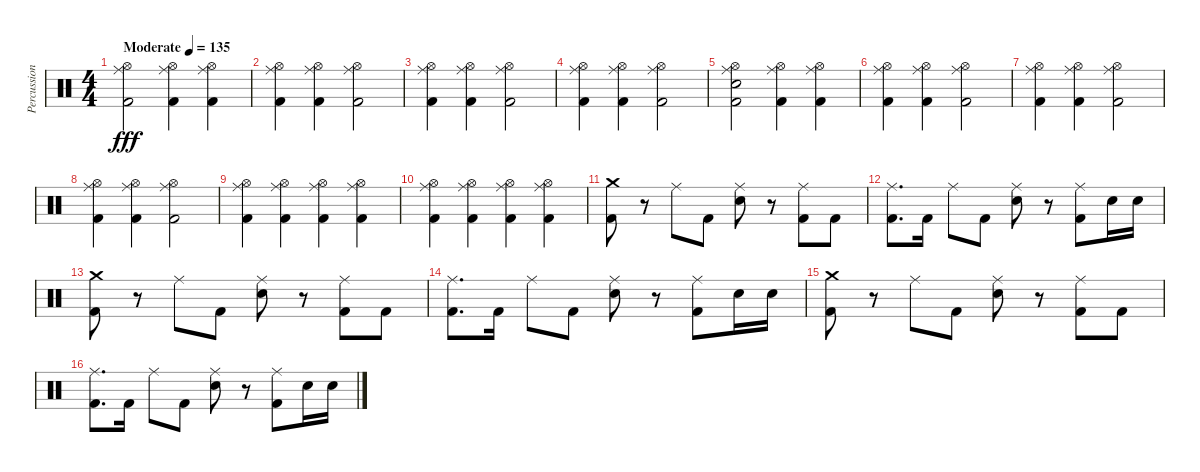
\track ("Percussion" "Percussion") {instrument percussion}
\staff {score}
\articulation defaults
\ts (4 4)
\tempo (135 "Moderate")
\clef neutral
\ks c
("Hi-Hat (open)" "Kick (hit) 2" "Ride (middle)").2{dy fff} ("Hi-Hat (open)" "Kick (hit) 2" "Ride (middle)").4 ("Hi-Hat (open)" "Kick (hit) 2" "Ride (middle)").4 |
("Hi-Hat (open)" "Kick (hit) 2" "Ride (middle)").4 ("Hi-Hat (open)" "Kick (hit) 2" "Ride (middle)").4 ("Hi-Hat (open)" "Kick (hit) 2" "Ride (middle)").2 |
("Hi-Hat (open)" "Kick (hit) 2" "Ride (middle)").4 ("Hi-Hat (open)" "Kick (hit) 2" "Ride (middle)").4 ("Hi-Hat (open)" "Kick (hit) 2" "Ride (middle)").2 |
("Hi-Hat (open)" "Kick (hit) 2" "Ride (middle)").4 ("Hi-Hat (open)" "Kick (hit) 2" "Ride (middle)").4 ("Hi-Hat (open)" "Kick (hit) 2" "Ride (middle)").2 |
("Hi-Hat (open)" "Kick (hit) 2" "Ride (middle)" "Electric Snare (hit)").2 ("Hi-Hat (open)" "Kick (hit) 2" "Ride (middle)").4 ("Hi-Hat (open)" "Kick (hit) 2" "Ride (middle)").4 |
("Hi-Hat (open)" "Kick (hit) 2" "Ride (middle)").4 ("Hi-Hat (open)" "Kick (hit) 2" "Ride (middle)").4 ("Hi-Hat (open)" "Kick (hit) 2" "Ride (middle)").2 |
("Hi-Hat (open)" "Kick (hit) 2" "Ride (middle)").4 ("Hi-Hat (open)" "Kick (hit) 2" "Ride (middle)").4 ("Hi-Hat (open)" "Kick (hit) 2" "Ride (middle)").2 |
("Hi-Hat (open)" "Kick (hit) 2" "Ride (middle)").4 ("Hi-Hat (open)" "Kick (hit) 2" "Ride (middle)").4 ("Hi-Hat (open)" "Kick (hit) 2" "Ride (middle)").2 |
("Hi-Hat (open)" "Kick (hit) 2" "Ride (middle)").4 ("Hi-Hat (open)" "Kick (hit) 2" "Ride (middle)").4 ("Hi-Hat (open)" "Kick (hit) 2" "Ride (middle)").4 ("Hi-Hat (open)" "Kick (hit) 2" "Ride (middle)").4 |
("Hi-Hat (open)" "Kick (hit) 2" "Ride (middle)").4 ("Hi-Hat (open)" "Kick (hit) 2" "Ride (middle)").4 ("Hi-Hat (open)" "Kick (hit) 2" "Ride (middle)").4 ("Hi-Hat (open)" "Kick (hit) 2" "Ride (middle)").4 |
("Crash medium (hit)" "Kick (hit) 2").8 r.8 "Ride (middle)".8 "Kick (hit) 2".8 ("Ride (middle)" "Electric Snare (hit)").8 r.8 ("Ride (middle)" "Kick (hit) 2").8 "Kick (hit) 2".8 |
("Ride (middle)" "Kick (hit) 2").8{d} "Kick (hit) 2".16 "Ride (middle)".8 "Kick (hit) 2".8 ("Ride (middle)" "Electric Snare (hit)").8 r.8 ("Ride (middle)" "Kick (hit) 2").8 "Electric Snare (hit)".16 "Electric Snare (hit)".16 |
("Crash medium (hit)" "Kick (hit) 2").8 r.8 "Ride (middle)".8 "Kick (hit) 2".8 ("Ride (middle)" "Electric Snare (hit)").8 r.8 ("Ride (middle)" "Kick (hit) 2").8 "Kick (hit) 2".8 |
("Ride (middle)" "Kick (hit) 2").8{d} "Kick (hit) 2".16 "Ride (middle)".8 "Kick (hit) 2".8 ("Ride (middle)" "Electric Snare (hit)").8 r.8 ("Ride (middle)" "Kick (hit) 2").8 "Electric Snare (hit)".16 "Electric Snare (hit)".16 |
("Crash medium (hit)" "Kick (hit) 2").8 r.8 "Ride (middle)".8 "Kick (hit) 2".8 ("Ride (middle)" "Electric Snare (hit)").8 r.8 ("Ride (middle)" "Kick (hit) 2").8 "Kick (hit) 2".8 |
("Ride (middle)" "Kick (hit) 2").8{d} "Kick (hit) 2".16 "Ride (middle)".8 "Kick (hit) 2".8 ("Ride (middle)" "Electric Snare (hit)").8 r.8 ("Ride (middle)" "Kick (hit) 2").8 "Electric Snare (hit)".16 "Electric Snare (hit)".16
